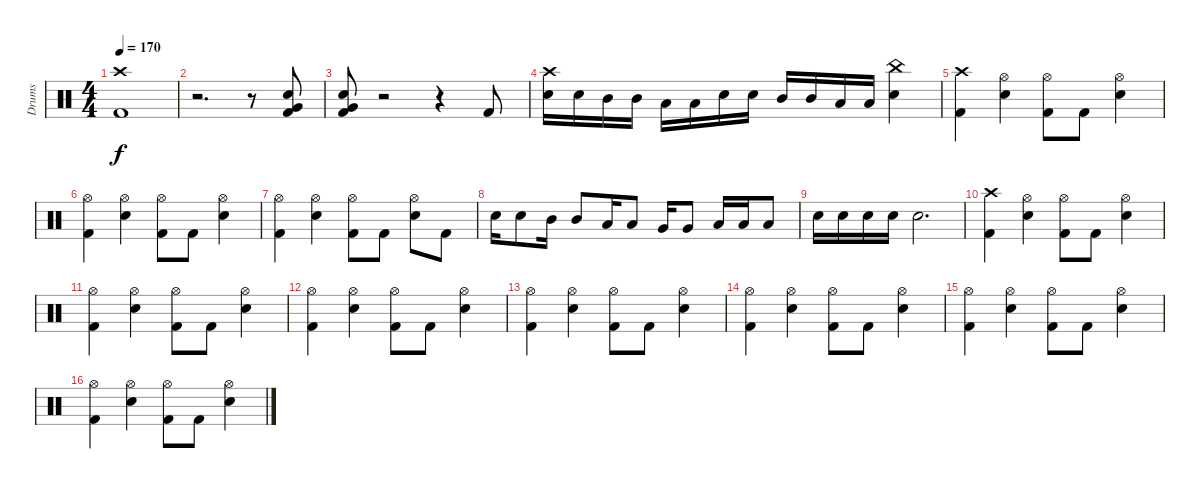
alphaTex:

\track ("Drums" "Drums") {instrument percussion}
\staff {score}
\articulation defaults
\ts (4 4)
\tempo 170
\clef neutral
\ks c
("Crash high (hit)" "Kick (hit) 2").1{dy f} |
r.2{d} r.8 ("Snare (hit) 2" "Very Low Tom (hit)" "Kick (hit) 2").8 |
("Snare (hit) 2" "Very Low Tom (hit)" "Kick (hit) 2").8 r.2 r.4 "Kick (hit) 2".8 |
("Crash high (hit)" "Snare (hit) 2").16 "Snare (hit) 2".16 "Mid Tom (hit)".16 "Mid Tom (hit)".16 "Low Tom (hit)".16 "Low Tom (hit)".16 "Snare (hit) 2".16 "Snare (hit) 2".16 "Mid Tom (hit)".16 "Mid Tom (hit)".16 "Low Tom (hit)".16 "Low Tom (hit)".16 ("China (hit)" "Snare (hit) 2").4 |
("Crash high (hit)" "Kick (hit) 2").4 ("Hi-Hat (open)" "Snare (hit) 2").4 ("Hi-Hat (open)" "Kick (hit) 2").8 "Kick (hit) 2".8 ("Hi-Hat (open)" "Snare (hit) 2").4 |
("Hi-Hat (open)" "Kick (hit) 2").4 ("Hi-Hat (open)" "Snare (hit) 2").4 ("Hi-Hat (open)" "Kick (hit) 2").8 "Kick (hit) 2".8 ("Hi-Hat (open)" "Snare (hit) 2").4 |
("Hi-Hat (open)" "Kick (hit) 2").4 ("Hi-Hat (open)" "Snare (hit) 2").4 ("Hi-Hat (open)" "Kick (hit) 2").8 "Kick (hit) 2".8 ("Hi-Hat (open)" "Snare (hit) 2").8 "Kick (hit) 2".8 |
"Snare (hit) 2".16 "Snare (hit) 2".8 "Mid Tom (hit)".16 "Mid Tom (hit)".8 "Low Tom (hit)".16 "Low Tom (hit)".8 "Very Low Tom (hit)".16 "Very Low Tom (hit)".8 "Low Floor Tom (hit)".16 "Low Floor Tom (hit)".16 "Low Floor Tom (hit)".8 |
"Snare (hit) 2".16 "Snare (hit) 2".16 "Snare (hit) 2".16 "Snare (hit) 2".16 "Snare (hit) 2".2{d} |
("Crash high (hit)" "Kick (hit) 2").4 ("Hi-Hat (open)" "Snare (hit) 2").4 ("Hi-Hat (open)" "Kick (hit) 2").8 "Kick (hit) 2".8 ("Hi-Hat (open)" "Snare (hit) 2").4 |
("Hi-Hat (open)" "Kick (hit) 2").4 ("Hi-Hat (open)" "Snare (hit) 2").4 ("Hi-Hat (open)" "Kick (hit) 2").8 "Kick (hit) 2".8 ("Hi-Hat (open)" "Snare (hit) 2").4 |
("Hi-Hat (open)" "Kick (hit) 2").4 ("Hi-Hat (open)" "Snare (hit) 2").4 ("Hi-Hat (open)" "Kick (hit) 2").8 "Kick (hit) 2".8 ("Hi-Hat (open)" "Snare (hit) 2").4 |
("Hi-Hat (open)" "Kick (hit) 2").4 ("Hi-Hat (open)" "Snare (hit) 2").4 ("Hi-Hat (open)" "Kick (hit) 2").8 "Kick (hit) 2".8 ("Hi-Hat (open)" "Snare (hit) 2").4 |
("Hi-Hat (open)" "Kick (hit) 2").4 ("Hi-Hat (open)" "Snare (hit) 2").4 ("Hi-Hat (open)" "Kick (hit) 2").8 "Kick (hit) 2".8 ("Hi-Hat (open)" "Snare (hit) 2").4 |
("Hi-Hat (open)" "Kick (hit) 2").4 ("Hi-Hat (open)" "Snare (hit) 2").4 ("Hi-Hat (open)" "Kick (hit) 2").8 "Kick (hit) 2".8 ("Hi-Hat (open)" "Snare (hit) 2").4 |
("Hi-Hat (open)" "Kick (hit) 2").4 ("Hi-Hat (open)" "Snare (hit) 2").4 ("Hi-Hat (open)" "Kick (hit) 2").8 "Kick (hit) 2".8 ("Hi-Hat (open)" "Snare (hit) 2").4
